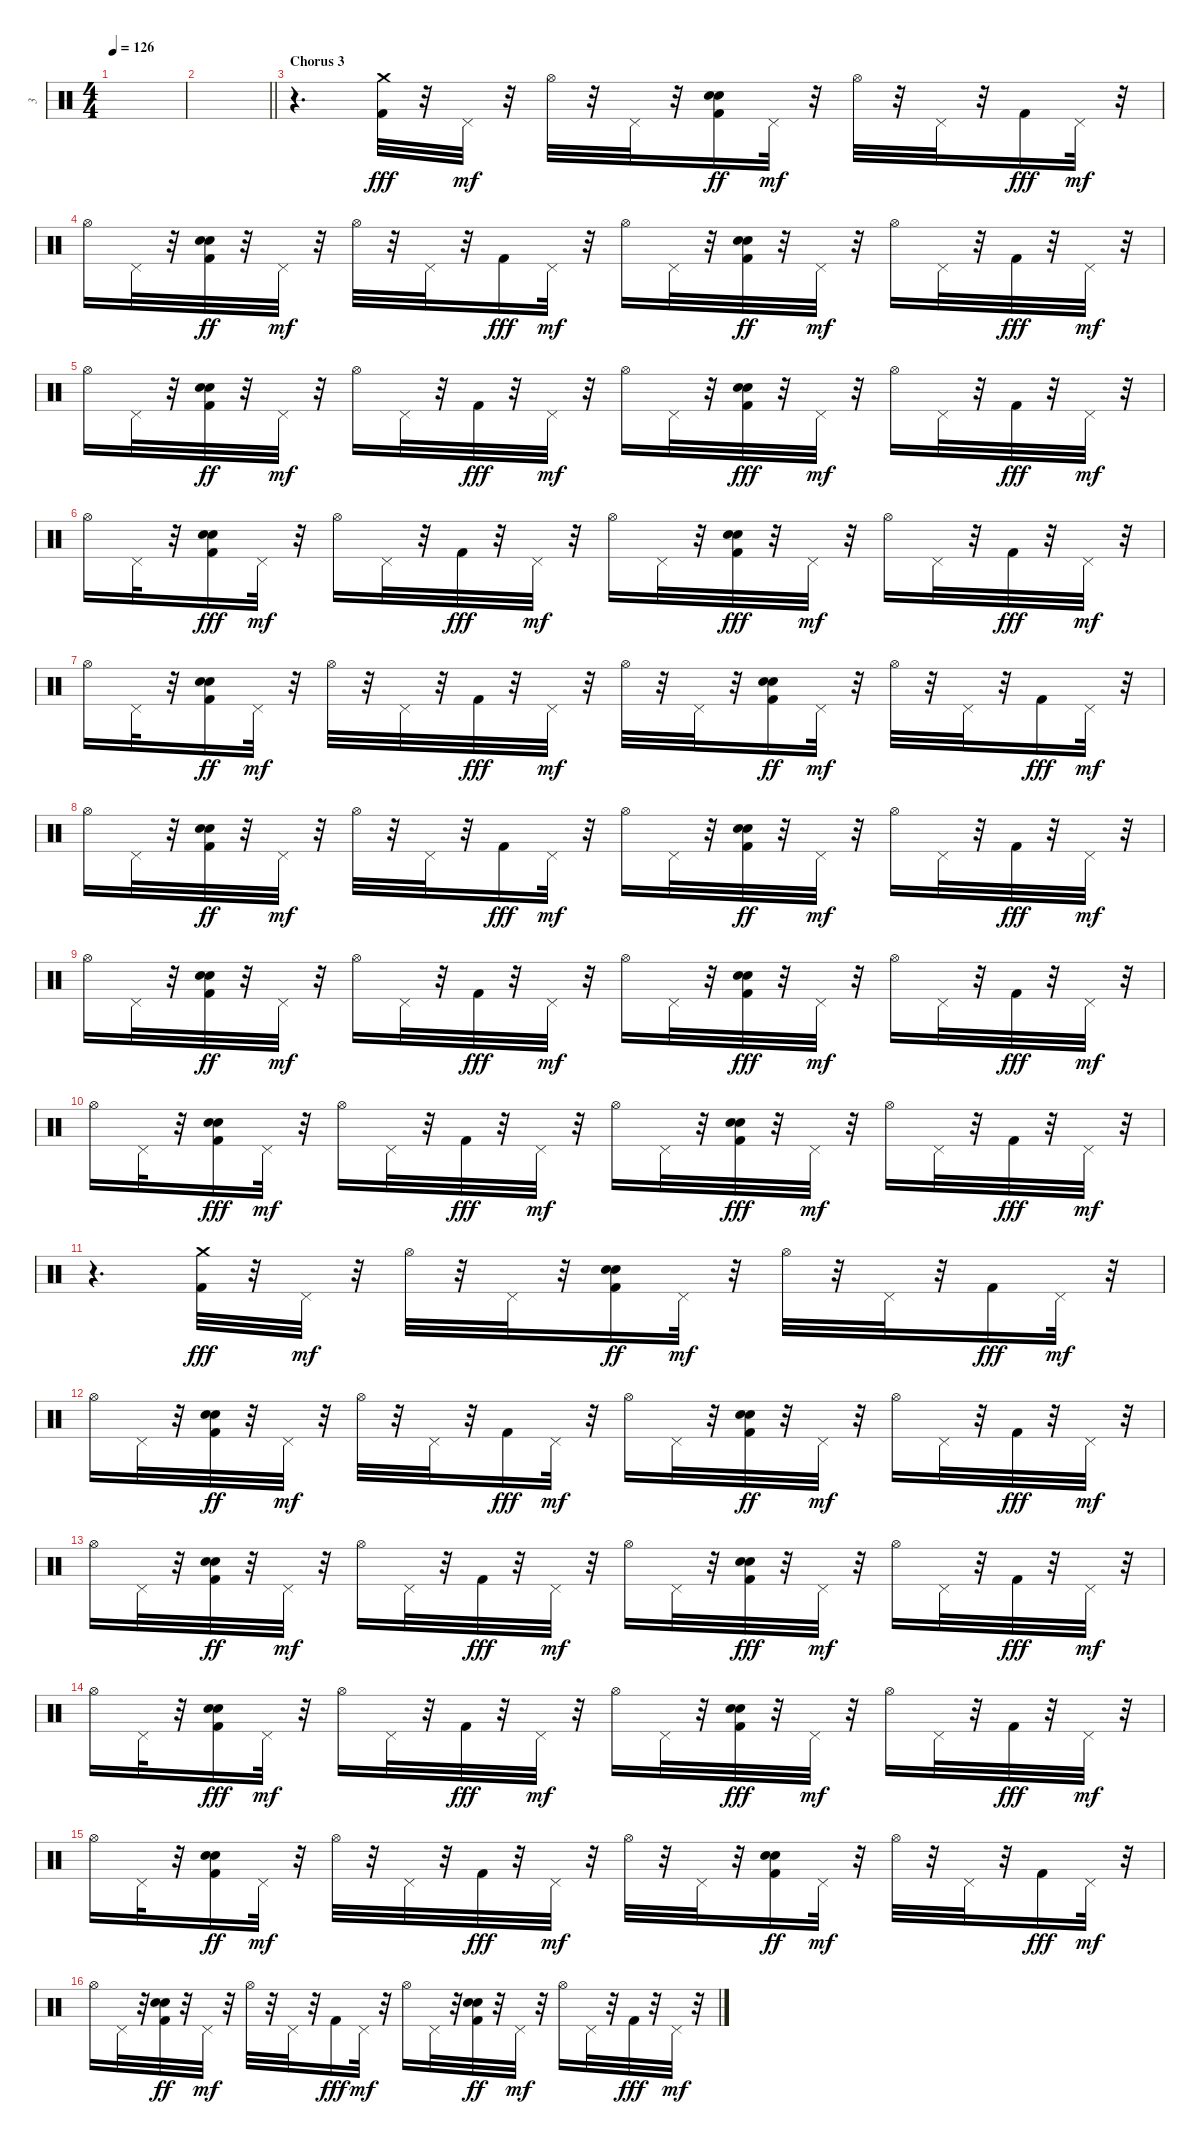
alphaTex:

\track ("3" "3") {instrument percussion}
\staff {score}
\articulation defaults
\ts (4 4)
\tempo 126
\clef neutral
\ks c
|
\barLineRight lightlight
|
\section ("" "Chorus 3")
r.4{d} ("Kick (hit) 2" "Crash medium (hit)").32{dy fff} r.32 "Pedal Hi-Hat (hit)".32{dy mf} r.32 "Hi-Hat (open)".32 r.32 "Pedal Hi-Hat (hit)".32 r.32 ("Kick (hit) 2" "Snare (hit) 2" "Hand Clap (hit)").16{dy ff} "Pedal Hi-Hat (hit)".32{dy mf} r.32 "Hi-Hat (open)".32 r.32 "Pedal Hi-Hat (hit)".32 r.32 "Kick (hit) 2".16{dy fff} "Pedal Hi-Hat (hit)".32{dy mf} r.32 |
"Hi-Hat (open)".16 "Pedal Hi-Hat (hit)".32 r.32 ("Kick (hit) 2" "Snare (hit) 2" "Hand Clap (hit)").32{dy ff} r.32 "Pedal Hi-Hat (hit)".32{dy mf} r.32 "Hi-Hat (open)".32 r.32 "Pedal Hi-Hat (hit)".32 r.32 "Kick (hit) 2".16{dy fff} "Pedal Hi-Hat (hit)".32{dy mf} r.32 "Hi-Hat (open)".16 "Pedal Hi-Hat (hit)".32 r.32 ("Kick (hit) 2" "Snare (hit) 2" "Hand Clap (hit)").32{dy ff} r.32 "Pedal Hi-Hat (hit)".32{dy mf} r.32 "Hi-Hat (open)".16 "Pedal Hi-Hat (hit)".32 r.32 "Kick (hit) 2".32{dy fff} r.32 "Pedal Hi-Hat (hit)".32{dy mf} r.32 |
"Hi-Hat (open)".16 "Pedal Hi-Hat (hit)".32 r.32 ("Kick (hit) 2" "Snare (hit) 2" "Hand Clap (hit)").32{dy ff} r.32 "Pedal Hi-Hat (hit)".32{dy mf} r.32 "Hi-Hat (open)".16 "Pedal Hi-Hat (hit)".32 r.32 "Kick (hit) 2".32{dy fff} r.32 "Pedal Hi-Hat (hit)".32{dy mf} r.32 "Hi-Hat (open)".16 "Pedal Hi-Hat (hit)".32 r.32 ("Kick (hit) 2" "Snare (hit) 2" "Hand Clap (hit)").32{dy fff} r.32 "Pedal Hi-Hat (hit)".32{dy mf} r.32 "Hi-Hat (open)".16 "Pedal Hi-Hat (hit)".32 r.32 "Kick (hit) 2".32{dy fff} r.32 "Pedal Hi-Hat (hit)".32{dy mf} r.32 |
"Hi-Hat (open)".16 "Pedal Hi-Hat (hit)".32 r.32 ("Kick (hit) 2" "Snare (hit) 2" "Hand Clap (hit)").16{dy fff} "Pedal Hi-Hat (hit)".32{dy mf} r.32 "Hi-Hat (open)".16 "Pedal Hi-Hat (hit)".32 r.32 "Kick (hit) 2".32{dy fff} r.32 "Pedal Hi-Hat (hit)".32{dy mf} r.32 "Hi-Hat (open)".16 "Pedal Hi-Hat (hit)".32 r.32 ("Kick (hit) 2" "Snare (hit) 2" "Hand Clap (hit)").32{dy fff} r.32 "Pedal Hi-Hat (hit)".32{dy mf} r.32 "Hi-Hat (open)".16 "Pedal Hi-Hat (hit)".32 r.32 "Kick (hit) 2".32{dy fff} r.32 "Pedal Hi-Hat (hit)".32{dy mf} r.32 |
"Hi-Hat (open)".16 "Pedal Hi-Hat (hit)".32 r.32 ("Kick (hit) 2" "Snare (hit) 2" "Hand Clap (hit)").16{dy ff} "Pedal Hi-Hat (hit)".32{dy mf} r.32 "Hi-Hat (open)".32 r.32 "Pedal Hi-Hat (hit)".32 r.32 "Kick (hit) 2".32{dy fff} r.32 "Pedal Hi-Hat (hit)".32{dy mf} r.32 "Hi-Hat (open)".32 r.32 "Pedal Hi-Hat (hit)".32 r.32 ("Kick (hit) 2" "Snare (hit) 2" "Hand Clap (hit)").16{dy ff} "Pedal Hi-Hat (hit)".32{dy mf} r.32 "Hi-Hat (open)".32 r.32 "Pedal Hi-Hat (hit)".32 r.32 "Kick (hit) 2".16{dy fff} "Pedal Hi-Hat (hit)".32{dy mf} r.32 |
"Hi-Hat (open)".16 "Pedal Hi-Hat (hit)".32 r.32 ("Kick (hit) 2" "Snare (hit) 2" "Hand Clap (hit)").32{dy ff} r.32 "Pedal Hi-Hat (hit)".32{dy mf} r.32 "Hi-Hat (open)".32 r.32 "Pedal Hi-Hat (hit)".32 r.32 "Kick (hit) 2".16{dy fff} "Pedal Hi-Hat (hit)".32{dy mf} r.32 "Hi-Hat (open)".16 "Pedal Hi-Hat (hit)".32 r.32 ("Kick (hit) 2" "Snare (hit) 2" "Hand Clap (hit)").32{dy ff} r.32 "Pedal Hi-Hat (hit)".32{dy mf} r.32 "Hi-Hat (open)".16 "Pedal Hi-Hat (hit)".32 r.32 "Kick (hit) 2".32{dy fff} r.32 "Pedal Hi-Hat (hit)".32{dy mf} r.32 |
"Hi-Hat (open)".16 "Pedal Hi-Hat (hit)".32 r.32 ("Kick (hit) 2" "Snare (hit) 2" "Hand Clap (hit)").32{dy ff} r.32 "Pedal Hi-Hat (hit)".32{dy mf} r.32 "Hi-Hat (open)".16 "Pedal Hi-Hat (hit)".32 r.32 "Kick (hit) 2".32{dy fff} r.32 "Pedal Hi-Hat (hit)".32{dy mf} r.32 "Hi-Hat (open)".16 "Pedal Hi-Hat (hit)".32 r.32 ("Kick (hit) 2" "Snare (hit) 2" "Hand Clap (hit)").32{dy fff} r.32 "Pedal Hi-Hat (hit)".32{dy mf} r.32 "Hi-Hat (open)".16 "Pedal Hi-Hat (hit)".32 r.32 "Kick (hit) 2".32{dy fff} r.32 "Pedal Hi-Hat (hit)".32{dy mf} r.32 |
"Hi-Hat (open)".16 "Pedal Hi-Hat (hit)".32 r.32 ("Kick (hit) 2" "Snare (hit) 2" "Hand Clap (hit)").16{dy fff} "Pedal Hi-Hat (hit)".32{dy mf} r.32 "Hi-Hat (open)".16 "Pedal Hi-Hat (hit)".32 r.32 "Kick (hit) 2".32{dy fff} r.32 "Pedal Hi-Hat (hit)".32{dy mf} r.32 "Hi-Hat (open)".16 "Pedal Hi-Hat (hit)".32 r.32 ("Kick (hit) 2" "Snare (hit) 2" "Hand Clap (hit)").32{dy fff} r.32 "Pedal Hi-Hat (hit)".32{dy mf} r.32 "Hi-Hat (open)".16 "Pedal Hi-Hat (hit)".32 r.32 "Kick (hit) 2".32{dy fff} r.32 "Pedal Hi-Hat (hit)".32{dy mf} r.32 |
r.4{d} ("Kick (hit) 2" "Crash medium (hit)").32{dy fff} r.32 "Pedal Hi-Hat (hit)".32{dy mf} r.32 "Hi-Hat (open)".32 r.32 "Pedal Hi-Hat (hit)".32 r.32 ("Kick (hit) 2" "Snare (hit) 2" "Hand Clap (hit)").16{dy ff} "Pedal Hi-Hat (hit)".32{dy mf} r.32 "Hi-Hat (open)".32 r.32 "Pedal Hi-Hat (hit)".32 r.32 "Kick (hit) 2".16{dy fff} "Pedal Hi-Hat (hit)".32{dy mf} r.32 |
"Hi-Hat (open)".16 "Pedal Hi-Hat (hit)".32 r.32 ("Kick (hit) 2" "Snare (hit) 2" "Hand Clap (hit)").32{dy ff} r.32 "Pedal Hi-Hat (hit)".32{dy mf} r.32 "Hi-Hat (open)".32 r.32 "Pedal Hi-Hat (hit)".32 r.32 "Kick (hit) 2".16{dy fff} "Pedal Hi-Hat (hit)".32{dy mf} r.32 "Hi-Hat (open)".16 "Pedal Hi-Hat (hit)".32 r.32 ("Kick (hit) 2" "Snare (hit) 2" "Hand Clap (hit)").32{dy ff} r.32 "Pedal Hi-Hat (hit)".32{dy mf} r.32 "Hi-Hat (open)".16 "Pedal Hi-Hat (hit)".32 r.32 "Kick (hit) 2".32{dy fff} r.32 "Pedal Hi-Hat (hit)".32{dy mf} r.32 |
"Hi-Hat (open)".16 "Pedal Hi-Hat (hit)".32 r.32 ("Kick (hit) 2" "Snare (hit) 2" "Hand Clap (hit)").32{dy ff} r.32 "Pedal Hi-Hat (hit)".32{dy mf} r.32 "Hi-Hat (open)".16 "Pedal Hi-Hat (hit)".32 r.32 "Kick (hit) 2".32{dy fff} r.32 "Pedal Hi-Hat (hit)".32{dy mf} r.32 "Hi-Hat (open)".16 "Pedal Hi-Hat (hit)".32 r.32 ("Kick (hit) 2" "Snare (hit) 2" "Hand Clap (hit)").32{dy fff} r.32 "Pedal Hi-Hat (hit)".32{dy mf} r.32 "Hi-Hat (open)".16 "Pedal Hi-Hat (hit)".32 r.32 "Kick (hit) 2".32{dy fff} r.32 "Pedal Hi-Hat (hit)".32{dy mf} r.32 |
"Hi-Hat (open)".16 "Pedal Hi-Hat (hit)".32 r.32 ("Kick (hit) 2" "Snare (hit) 2" "Hand Clap (hit)").16{dy fff} "Pedal Hi-Hat (hit)".32{dy mf} r.32 "Hi-Hat (open)".16 "Pedal Hi-Hat (hit)".32 r.32 "Kick (hit) 2".32{dy fff} r.32 "Pedal Hi-Hat (hit)".32{dy mf} r.32 "Hi-Hat (open)".16 "Pedal Hi-Hat (hit)".32 r.32 ("Kick (hit) 2" "Snare (hit) 2" "Hand Clap (hit)").32{dy fff} r.32 "Pedal Hi-Hat (hit)".32{dy mf} r.32 "Hi-Hat (open)".16 "Pedal Hi-Hat (hit)".32 r.32 "Kick (hit) 2".32{dy fff} r.32 "Pedal Hi-Hat (hit)".32{dy mf} r.32 |
"Hi-Hat (open)".16 "Pedal Hi-Hat (hit)".32 r.32 ("Kick (hit) 2" "Snare (hit) 2" "Hand Clap (hit)").16{dy ff} "Pedal Hi-Hat (hit)".32{dy mf} r.32 "Hi-Hat (open)".32 r.32 "Pedal Hi-Hat (hit)".32 r.32 "Kick (hit) 2".32{dy fff} r.32 "Pedal Hi-Hat (hit)".32{dy mf} r.32 "Hi-Hat (open)".32 r.32 "Pedal Hi-Hat (hit)".32 r.32 ("Kick (hit) 2" "Snare (hit) 2" "Hand Clap (hit)").16{dy ff} "Pedal Hi-Hat (hit)".32{dy mf} r.32 "Hi-Hat (open)".32 r.32 "Pedal Hi-Hat (hit)".32 r.32 "Kick (hit) 2".16{dy fff} "Pedal Hi-Hat (hit)".32{dy mf} r.32 |
"Hi-Hat (open)".16 "Pedal Hi-Hat (hit)".32 r.32 ("Kick (hit) 2" "Snare (hit) 2" "Hand Clap (hit)").32{dy ff} r.32 "Pedal Hi-Hat (hit)".32{dy mf} r.32 "Hi-Hat (open)".32 r.32 "Pedal Hi-Hat (hit)".32 r.32 "Kick (hit) 2".16{dy fff} "Pedal Hi-Hat (hit)".32{dy mf} r.32 "Hi-Hat (open)".16 "Pedal Hi-Hat (hit)".32 r.32 ("Kick (hit) 2" "Snare (hit) 2" "Hand Clap (hit)").32{dy ff} r.32 "Pedal Hi-Hat (hit)".32{dy mf} r.32 "Hi-Hat (open)".16 "Pedal Hi-Hat (hit)".32 r.32 "Kick (hit) 2".32{dy fff} r.32 "Pedal Hi-Hat (hit)".32{dy mf} r.32
